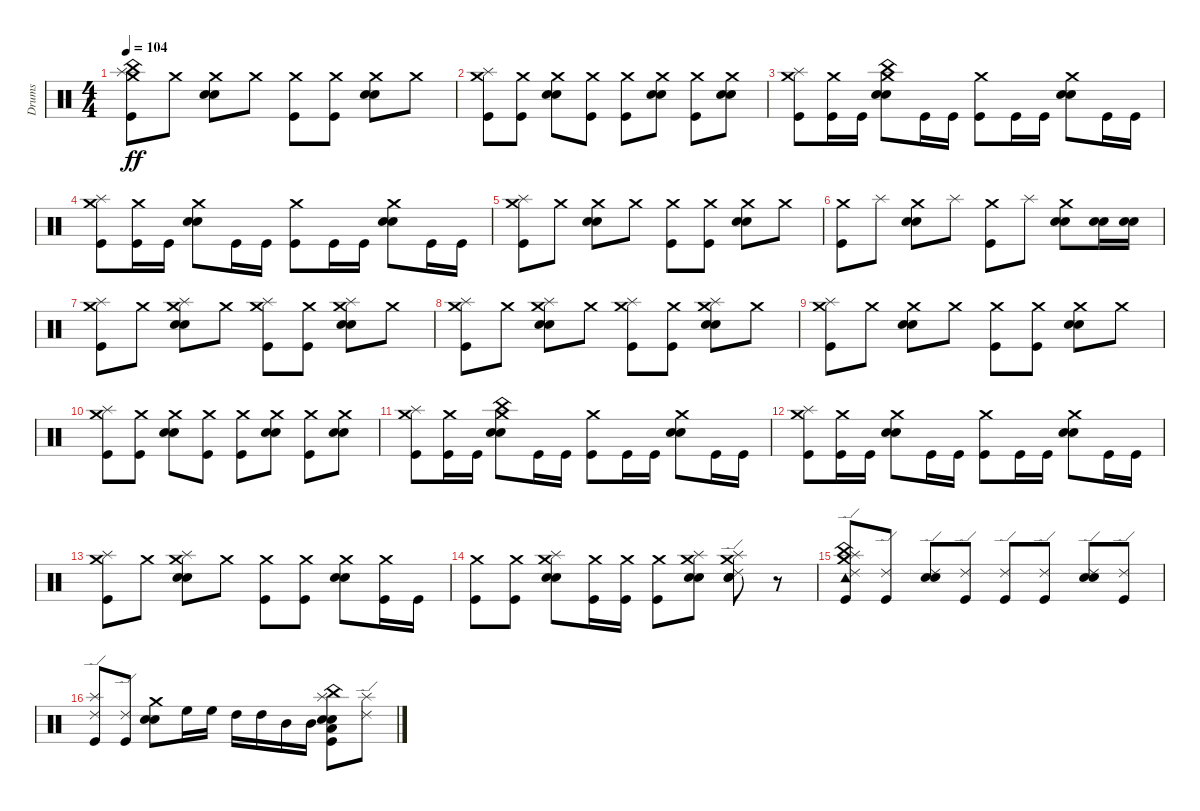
\track ("Drums" "Drums") {instrument percussion}
\staff {score}
\articulation defaults
\ts (4 4)
\tempo 104
\clef neutral
\ks c
("Kick (hit)" "China (hit)" "Splash (hit)" "Crash medium (hit)").8{dy ff} "Crash medium (hit)".8 ("Snare (hit) 2" "Electric Snare (hit)" "Crash medium (hit)").8 "Crash medium (hit)".8 ("Kick (hit)" "Crash medium (hit)").8 ("Kick (hit)" "Crash medium (hit)").8 ("Snare (hit) 2" "Electric Snare (hit)" "Crash medium (hit)").8 "Crash medium (hit)".8 |
("Kick (hit)" "Splash (hit)" "Crash medium (hit)").8 ("Kick (hit)" "Crash medium (hit)").8 ("Snare (hit) 2" "Electric Snare (hit)" "Crash medium (hit)").8 ("Kick (hit)" "Crash medium (hit)").8 ("Kick (hit)" "Crash medium (hit)").8 ("Snare (hit) 2" "Electric Snare (hit)" "Crash medium (hit)").8 ("Kick (hit)" "Crash medium (hit)").8 ("Snare (hit) 2" "Electric Snare (hit)" "Crash medium (hit)").8 |
("Kick (hit)" "Splash (hit)" "Crash medium (hit)").8 ("Kick (hit)" "Crash medium (hit)").16 "Kick (hit)".16 ("Snare (hit) 2" "Electric Snare (hit)" "China (hit)" "Crash medium (hit)").8 "Kick (hit)".16 "Kick (hit)".16 ("Kick (hit)" "Crash medium (hit)").8 "Kick (hit)".16 "Kick (hit)".16 ("Snare (hit) 2" "Electric Snare (hit)" "Crash medium (hit)").8 "Kick (hit)".16 "Kick (hit)".16 |
("Kick (hit)" "Splash (hit)" "Crash medium (hit)").8 ("Kick (hit)" "Crash medium (hit)").16 "Kick (hit)".16 ("Snare (hit) 2" "Electric Snare (hit)" "Crash medium (hit)").8 "Kick (hit)".16 "Kick (hit)".16 ("Kick (hit)" "Crash medium (hit)").8 "Kick (hit)".16 "Kick (hit)".16 ("Snare (hit) 2" "Electric Snare (hit)" "Crash medium (hit)").8 "Kick (hit)".16 "Kick (hit)".16 |
("Kick (hit)" "Splash (hit)" "Crash medium (hit)").8 "Crash medium (hit)".8 ("Snare (hit) 2" "Electric Snare (hit)" "Crash medium (hit)").8 "Crash medium (hit)".8 ("Kick (hit)" "Crash medium (hit)").8 ("Kick (hit)" "Crash medium (hit)").8 ("Snare (hit) 2" "Electric Snare (hit)" "Crash medium (hit)").8 "Crash medium (hit)".8 |
("Kick (hit)" "Crash medium (hit)").8 "Splash (hit)".8 ("Snare (hit) 2" "Electric Snare (hit)" "Crash medium (hit)").8 "Splash (hit)".8 ("Kick (hit)" "Crash medium (hit)").8 "Splash (hit)".8 ("Snare (hit) 2" "Electric Snare (hit)" "Crash medium (hit)").8 ("Snare (hit) 2" "Electric Snare (hit)").16 ("Snare (hit) 2" "Electric Snare (hit)").16 |
("Kick (hit)" "Splash (hit)" "Crash medium (hit)").8 "Crash medium (hit)".8 ("Snare (hit) 2" "Electric Snare (hit)" "Splash (hit)" "Crash medium (hit)").8 "Crash medium (hit)".8 ("Kick (hit)" "Splash (hit)" "Crash medium (hit)").8 ("Kick (hit)" "Crash medium (hit)").8 ("Snare (hit) 2" "Electric Snare (hit)" "Splash (hit)" "Crash medium (hit)").8 "Crash medium (hit)".8 |
("Kick (hit)" "Splash (hit)" "Crash medium (hit)").8 "Crash medium (hit)".8 ("Snare (hit) 2" "Electric Snare (hit)" "Splash (hit)" "Crash medium (hit)").8 "Crash medium (hit)".8 ("Kick (hit)" "Splash (hit)" "Crash medium (hit)").8 ("Kick (hit)" "Crash medium (hit)").8 ("Snare (hit) 2" "Electric Snare (hit)" "Splash (hit)" "Crash medium (hit)").8 "Crash medium (hit)".8 |
("Kick (hit)" "Splash (hit)" "Crash medium (hit)").8 "Crash medium (hit)".8 ("Snare (hit) 2" "Electric Snare (hit)" "Crash medium (hit)").8 "Crash medium (hit)".8 ("Kick (hit)" "Crash medium (hit)").8 ("Kick (hit)" "Crash medium (hit)").8 ("Snare (hit) 2" "Electric Snare (hit)" "Crash medium (hit)").8 "Crash medium (hit)".8 |
("Kick (hit)" "Splash (hit)" "Crash medium (hit)").8 ("Kick (hit)" "Crash medium (hit)").8 ("Snare (hit) 2" "Electric Snare (hit)" "Crash medium (hit)").8 ("Kick (hit)" "Crash medium (hit)").8 ("Kick (hit)" "Crash medium (hit)").8 ("Snare (hit) 2" "Electric Snare (hit)" "Crash medium (hit)").8 ("Kick (hit)" "Crash medium (hit)").8 ("Snare (hit) 2" "Electric Snare (hit)" "Crash medium (hit)").8 |
("Kick (hit)" "Splash (hit)" "Crash medium (hit)").8 ("Kick (hit)" "Crash medium (hit)").16 "Kick (hit)".16 ("Snare (hit) 2" "Electric Snare (hit)" "China (hit)" "Crash medium (hit)").8 "Kick (hit)".16 "Kick (hit)".16 ("Kick (hit)" "Crash medium (hit)").8 "Kick (hit)".16 "Kick (hit)".16 ("Snare (hit) 2" "Electric Snare (hit)" "Crash medium (hit)").8 "Kick (hit)".16 "Kick (hit)".16 |
("Kick (hit)" "Splash (hit)" "Crash medium (hit)").8 ("Kick (hit)" "Crash medium (hit)").16 "Kick (hit)".16 ("Snare (hit) 2" "Electric Snare (hit)" "Crash medium (hit)").8 "Kick (hit)".16 "Kick (hit)".16 ("Kick (hit)" "Crash medium (hit)").8 "Kick (hit)".16 "Kick (hit)".16 ("Snare (hit) 2" "Electric Snare (hit)" "Crash medium (hit)").8 "Kick (hit)".16 "Kick (hit)".16 |
("Kick (hit)" "Splash (hit)" "Crash medium (hit)").8 "Crash medium (hit)".8 ("Snare (hit) 2" "Electric Snare (hit)" "Splash (hit)" "Crash medium (hit)").8 "Crash medium (hit)".8 ("Kick (hit)" "Crash medium (hit)").8 ("Kick (hit)" "Crash medium (hit)").8 ("Snare (hit) 2" "Electric Snare (hit)" "Crash medium (hit)").8 ("Kick (hit)" "Crash medium (hit)").16 "Kick (hit)".16 |
("Kick (hit)" "Crash medium (hit)").8 ("Kick (hit)" "Crash medium (hit)").8 ("Snare (hit) 2" "Electric Snare (hit)" "Splash (hit)" "Crash medium (hit)").8 ("Kick (hit)" "Crash medium (hit)").16 ("Kick (hit)" "Crash medium (hit)").16 ("Kick (hit)" "Crash medium (hit)").8 ("Snare (hit) 2" "Electric Snare (hit)" "Splash (hit)" "Crash medium (hit)").8 ("Snare (hit) 2" "Electric Snare (hit)" "Splash (hit)" "Crash medium (hit)" "Ride (edge) 2").8 r.8 |
("Kick (hit)" "China (hit)" "Tambourine (hit)" "Splash (hit)" "Crash medium (hit)" "Ride (edge) 2").8 ("Kick (hit)" "Ride (edge) 2").8 ("Snare (hit) 2" "Electric Snare (hit)" "Ride (edge) 2").8 ("Kick (hit)" "Ride (edge) 2").8 ("Kick (hit)" "Ride (edge) 2").8 ("Kick (hit)" "Ride (edge) 2").8 ("Snare (hit) 2" "Electric Snare (hit)" "Ride (edge) 2").8 ("Kick (hit)" "Ride (edge) 2").8 |
("Kick (hit)" "Splash (hit)" "Ride (edge) 2").8 ("Kick (hit)" "Ride (edge) 2").8 ("Snare (hit) 2" "Electric Snare (hit)" "Crash medium (hit)").8 "High Floor Tom (hit)".16 "High Floor Tom (hit)".16 "High Tom (hit)".16 "High Tom (hit)".16 "Mid Tom (hit)".16 "Mid Tom (hit)".16 ("Kick (hit)" "Snare (hit) 2" "Electric Snare (hit)" "Low Tom (hit)" "China (hit)" "Splash (hit)").8 ("Splash (hit)" "Ride (edge) 2").8
